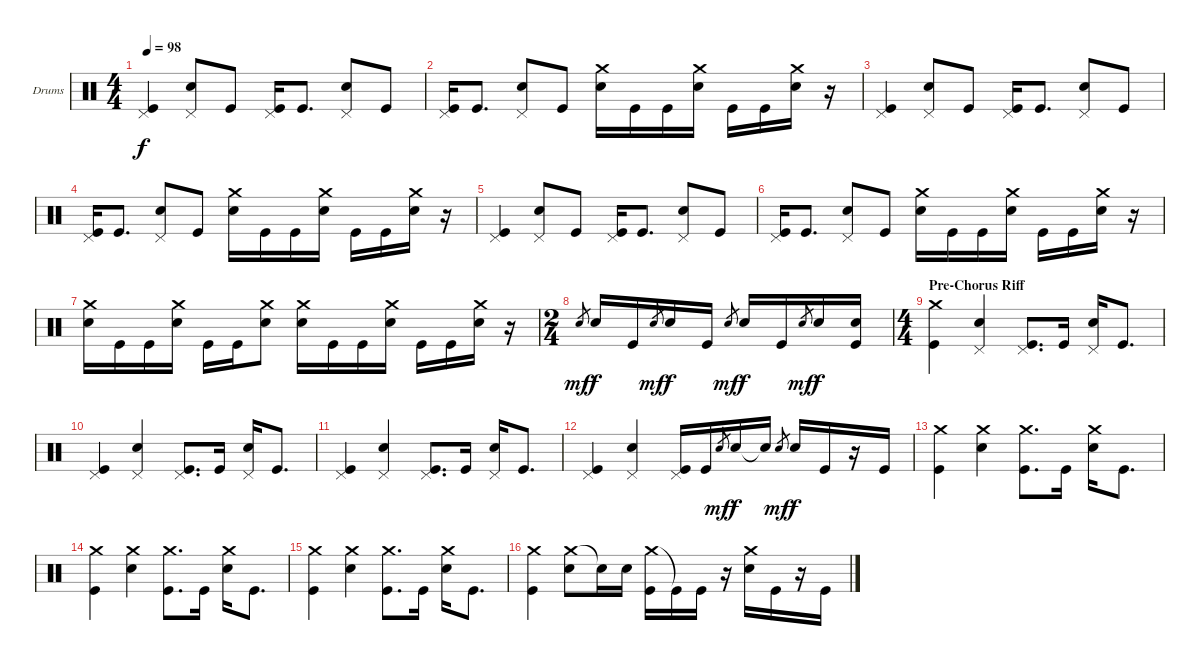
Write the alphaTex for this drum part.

\bracketExtendMode groupsimilarinstruments
\firstSystemTrackNameOrientation horizontal
\otherSystemsTrackNameOrientation horizontal
\track ("Drumkit" "Drums") {instrument percussion}
\staff {score}
\articulation defaults
\ts (4 4)
\tempo 98
\clef neutral
\ks c
("Pedal Hi-Hat (hit)" "Kick (hit)").4{dy f} ("Pedal Hi-Hat (hit)" "Snare (hit) 2").8 "Kick (hit)".8 ("Pedal Hi-Hat (hit)" "Kick (hit)").16 "Kick (hit)".8{d} ("Pedal Hi-Hat (hit)" "Snare (hit) 2").8 "Kick (hit)".8 |
("Pedal Hi-Hat (hit)" "Kick (hit)").16 "Kick (hit)".8{d} ("Pedal Hi-Hat (hit)" "Snare (hit) 2").8 "Kick (hit)".8 ("Crash medium (hit)" "Snare (hit) 2").16 "Kick (hit)".16 "Kick (hit)".16 ("Crash medium (hit)" "Snare (hit) 2").16 "Kick (hit)".16 "Kick (hit)".16 ("Crash medium (hit)" "Snare (hit) 2").16 r.16 |
("Pedal Hi-Hat (hit)" "Kick (hit)").4 ("Pedal Hi-Hat (hit)" "Snare (hit) 2").8 "Kick (hit)".8 ("Pedal Hi-Hat (hit)" "Kick (hit)").16 "Kick (hit)".8{d} ("Pedal Hi-Hat (hit)" "Snare (hit) 2").8 "Kick (hit)".8 |
("Pedal Hi-Hat (hit)" "Kick (hit)").16 "Kick (hit)".8{d} ("Pedal Hi-Hat (hit)" "Snare (hit) 2").8 "Kick (hit)".8 ("Crash medium (hit)" "Snare (hit) 2").16 "Kick (hit)".16 "Kick (hit)".16 ("Crash medium (hit)" "Snare (hit) 2").16 "Kick (hit)".16 "Kick (hit)".16 ("Crash medium (hit)" "Snare (hit) 2").16 r.16 |
("Pedal Hi-Hat (hit)" "Kick (hit)").4 ("Pedal Hi-Hat (hit)" "Snare (hit) 2").8 "Kick (hit)".8 ("Pedal Hi-Hat (hit)" "Kick (hit)").16 "Kick (hit)".8{d} ("Pedal Hi-Hat (hit)" "Snare (hit) 2").8 "Kick (hit)".8 |
("Pedal Hi-Hat (hit)" "Kick (hit)").16 "Kick (hit)".8{d} ("Pedal Hi-Hat (hit)" "Snare (hit) 2").8 "Kick (hit)".8 ("Crash medium (hit)" "Snare (hit) 2").16 "Kick (hit)".16 "Kick (hit)".16 ("Crash medium (hit)" "Snare (hit) 2").16 "Kick (hit)".16 "Kick (hit)".16 ("Crash medium (hit)" "Snare (hit) 2").16 r.16 |
("Crash medium (hit)" "Snare (hit) 2").16 "Kick (hit)".16 "Kick (hit)".16 ("Crash medium (hit)" "Snare (hit) 2").16 "Kick (hit)".16 "Kick (hit)".16 ("Crash medium (hit)" "Snare (hit) 2").8 ("Crash medium (hit)" "Snare (hit) 2").16 "Kick (hit)".16 "Kick (hit)".16 ("Crash medium (hit)" "Snare (hit) 2").16 "Kick (hit)".16 "Kick (hit)".16 ("Crash medium (hit)" "Snare (hit) 2").16 r.16 |
\ts (2 4)
"Snare (hit) 2".8{gr dy mf} "Snare (hit) 2".16{dy f} "Kick (hit)".16 "Snare (hit) 2".8{gr dy mf} "Snare (hit) 2".16{dy f} "Kick (hit)".16 "Snare (hit) 2".8{gr dy mf} "Snare (hit) 2".16{dy f} "Kick (hit)".16 "Snare (hit) 2".8{gr dy mf} "Snare (hit) 2".16{dy f} ("Snare (hit) 2" "Kick (hit)").16 |
\ts (4 4)
\section ("" "Pre-Chorus Riff")
("Crash medium (hit)" "Kick (hit)").4 ("Pedal Hi-Hat (hit)" "Snare (hit) 2").4 ("Pedal Hi-Hat (hit)" "Kick (hit)").8{d} "Kick (hit)".16 ("Pedal Hi-Hat (hit)" "Snare (hit) 2").16 "Kick (hit)".8{d} |
("Pedal Hi-Hat (hit)" "Kick (hit)").4 ("Pedal Hi-Hat (hit)" "Snare (hit) 2").4 ("Pedal Hi-Hat (hit)" "Kick (hit)").8{d} "Kick (hit)".16 ("Pedal Hi-Hat (hit)" "Snare (hit) 2").16 "Kick (hit)".8{d} |
("Pedal Hi-Hat (hit)" "Kick (hit)").4 ("Pedal Hi-Hat (hit)" "Snare (hit) 2").4 ("Pedal Hi-Hat (hit)" "Kick (hit)").8{d} "Kick (hit)".16 ("Pedal Hi-Hat (hit)" "Snare (hit) 2").16 "Kick (hit)".8{d} |
("Pedal Hi-Hat (hit)" "Kick (hit)").4 ("Pedal Hi-Hat (hit)" "Snare (hit) 2").4 ("Pedal Hi-Hat (hit)" "Kick (hit)").16 "Kick (hit)".16 "Snare (hit) 2".8{gr dy mf} "Snare (hit) 2".16{dy f} "Snare (hit) 2"{t}.16 "Snare (hit) 2".8{gr dy mf} "Snare (hit) 2".16{dy f} "Kick (hit)".16 r.16 "Kick (hit)".16 |
("Crash medium (hit)" "Kick (hit)").4 ("Crash medium (hit)" "Snare (hit) 2").4 ("Crash medium (hit)" "Kick (hit)").8{d} "Kick (hit)".16 ("Crash medium (hit)" "Snare (hit) 2").16 "Kick (hit)".8{d} |
("Crash medium (hit)" "Kick (hit)").4 ("Crash medium (hit)" "Snare (hit) 2").4 ("Crash medium (hit)" "Kick (hit)").8{d} "Kick (hit)".16 ("Crash medium (hit)" "Snare (hit) 2").16 "Kick (hit)".8{d} |
("Crash medium (hit)" "Kick (hit)").4 ("Crash medium (hit)" "Snare (hit) 2").4 ("Crash medium (hit)" "Kick (hit)").8{d} "Kick (hit)".16 ("Crash medium (hit)" "Snare (hit) 2").16 "Kick (hit)".8{d} |
("Crash medium (hit)" "Kick (hit)").4 ("Crash medium (hit)" "Snare (hit) 2").8 "Snare (hit) 2"{t}.16 "Snare (hit) 2".16 ("Crash medium (hit)" "Kick (hit)").16 "Kick (hit)"{t}.16 "Kick (hit)".16 r.16 ("Crash medium (hit)" "Snare (hit) 2").16 "Kick (hit)".16 r.16 "Kick (hit)".16
